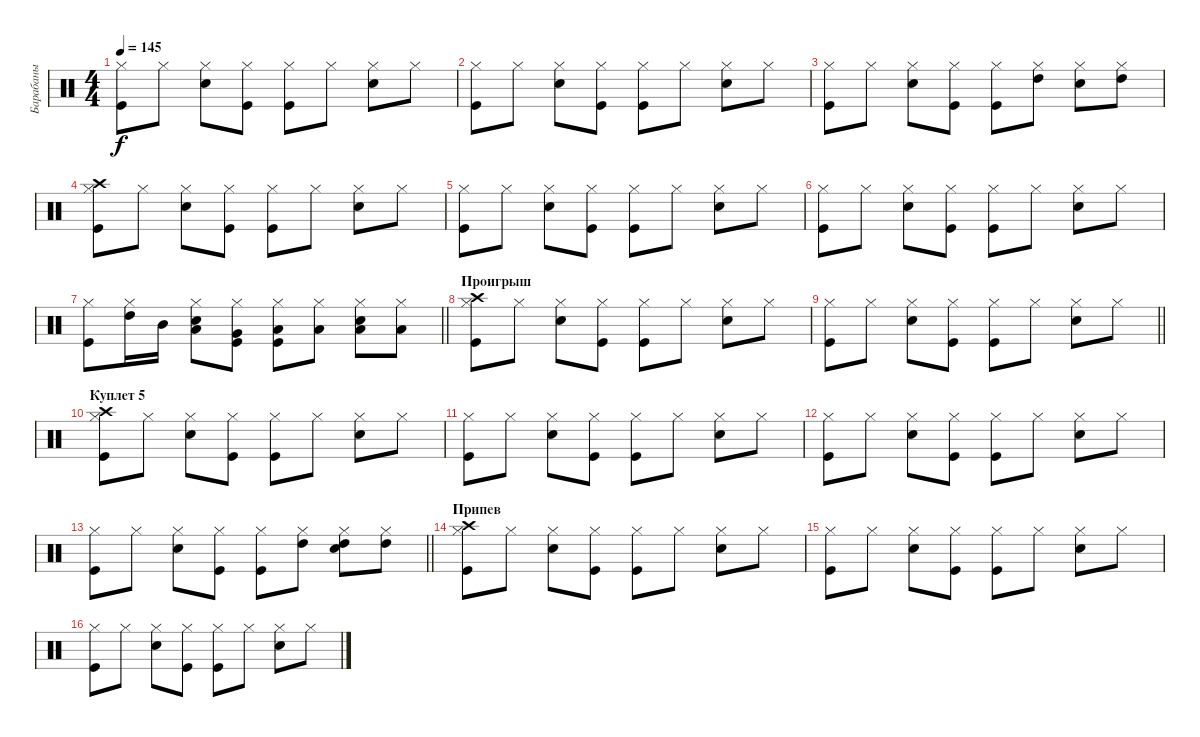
\track ("Барабаны" "Барабаны") {instrument percussion}
\staff {score}
\articulation defaults
\ts (4 4)
\tempo 145
\clef neutral
\ks c
("Kick (hit)" "Hi-Hat (closed)").8{dy f} "Hi-Hat (closed)".8 ("Snare (hit) 2" "Hi-Hat (closed)").8 ("Kick (hit)" "Hi-Hat (closed)").8 ("Kick (hit)" "Hi-Hat (closed)").8 "Hi-Hat (closed)".8 ("Snare (hit) 2" "Hi-Hat (closed)").8 "Hi-Hat (closed)".8 |
("Kick (hit)" "Hi-Hat (closed)").8 "Hi-Hat (closed)".8 ("Snare (hit) 2" "Hi-Hat (closed)").8 ("Kick (hit)" "Hi-Hat (closed)").8 ("Kick (hit)" "Hi-Hat (closed)").8 "Hi-Hat (closed)".8 ("Snare (hit) 2" "Hi-Hat (closed)").8 "Hi-Hat (closed)".8 |
("Kick (hit)" "Hi-Hat (closed)").8 "Hi-Hat (closed)".8 ("Snare (hit) 2" "Hi-Hat (closed)").8 ("Kick (hit)" "Hi-Hat (closed)").8 ("Kick (hit)" "Hi-Hat (closed)").8 ("Hi-Hat (closed)" "High Tom (hit)").8 ("Snare (hit) 2" "Hi-Hat (closed)").8 ("Hi-Hat (closed)" "High Tom (hit)").8 |
("Kick (hit)" "Hi-Hat (closed)" "Crash high (hit)").8 "Hi-Hat (closed)".8 ("Snare (hit) 2" "Hi-Hat (closed)").8 ("Kick (hit)" "Hi-Hat (closed)").8 ("Kick (hit)" "Hi-Hat (closed)").8 "Hi-Hat (closed)".8 ("Snare (hit) 2" "Hi-Hat (closed)").8 "Hi-Hat (closed)".8 |
("Kick (hit)" "Hi-Hat (closed)").8 "Hi-Hat (closed)".8 ("Snare (hit) 2" "Hi-Hat (closed)").8 ("Kick (hit)" "Hi-Hat (closed)").8 ("Kick (hit)" "Hi-Hat (closed)").8 "Hi-Hat (closed)".8 ("Snare (hit) 2" "Hi-Hat (closed)").8 "Hi-Hat (closed)".8 |
("Kick (hit)" "Hi-Hat (closed)").8 "Hi-Hat (closed)".8 ("Snare (hit) 2" "Hi-Hat (closed)").8 ("Kick (hit)" "Hi-Hat (closed)").8 ("Kick (hit)" "Hi-Hat (closed)").8 "Hi-Hat (closed)".8 ("Snare (hit) 2" "Hi-Hat (closed)").8 "Hi-Hat (closed)".8 |
\barLineRight lightlight
("Kick (hit)" "Hi-Hat (closed)").8 ("Hi-Hat (closed)" "High Tom (hit)").16 "Mid Tom (hit)".16 ("Snare (hit) 2" "Hi-Hat (closed)" "Low Tom (hit)").8 ("Kick (hit)" "Hi-Hat (closed)" "Very Low Tom (hit)").8 ("Kick (hit)" "Hi-Hat (closed)" "Low Floor Tom (hit)").8 ("Hi-Hat (closed)" "Low Floor Tom (hit)").8 ("Snare (hit) 2" "Hi-Hat (closed)" "Low Floor Tom (hit)").8 ("Hi-Hat (closed)" "Low Floor Tom (hit)").8 |
\section ("" "Проигрыш")
("Kick (hit)" "Hi-Hat (closed)" "Crash high (hit)").8 "Hi-Hat (closed)".8 ("Snare (hit) 2" "Hi-Hat (closed)").8 ("Kick (hit)" "Hi-Hat (closed)").8 ("Kick (hit)" "Hi-Hat (closed)").8 "Hi-Hat (closed)".8 ("Snare (hit) 2" "Hi-Hat (closed)").8 "Hi-Hat (closed)".8 |
\barLineRight lightlight
("Kick (hit)" "Hi-Hat (closed)").8 "Hi-Hat (closed)".8 ("Snare (hit) 2" "Hi-Hat (closed)").8 ("Kick (hit)" "Hi-Hat (closed)").8 ("Kick (hit)" "Hi-Hat (closed)").8 "Hi-Hat (closed)".8 ("Snare (hit) 2" "Hi-Hat (closed)").8 "Hi-Hat (closed)".8 |
\section ("" "Куплет 5")
("Kick (hit)" "Hi-Hat (closed)" "Crash high (hit)").8 "Hi-Hat (closed)".8 ("Snare (hit) 2" "Hi-Hat (closed)").8 ("Kick (hit)" "Hi-Hat (closed)").8 ("Kick (hit)" "Hi-Hat (closed)").8 "Hi-Hat (closed)".8 ("Snare (hit) 2" "Hi-Hat (closed)").8 "Hi-Hat (closed)".8 |
("Kick (hit)" "Hi-Hat (closed)").8 "Hi-Hat (closed)".8 ("Snare (hit) 2" "Hi-Hat (closed)").8 ("Kick (hit)" "Hi-Hat (closed)").8 ("Kick (hit)" "Hi-Hat (closed)").8 "Hi-Hat (closed)".8 ("Snare (hit) 2" "Hi-Hat (closed)").8 "Hi-Hat (closed)".8 |
("Kick (hit)" "Hi-Hat (closed)").8 "Hi-Hat (closed)".8 ("Snare (hit) 2" "Hi-Hat (closed)").8 ("Kick (hit)" "Hi-Hat (closed)").8 ("Kick (hit)" "Hi-Hat (closed)").8 "Hi-Hat (closed)".8 ("Snare (hit) 2" "Hi-Hat (closed)").8 "Hi-Hat (closed)".8 |
\barLineRight lightlight
("Kick (hit)" "Hi-Hat (closed)").8 "Hi-Hat (closed)".8 ("Snare (hit) 2" "Hi-Hat (closed)").8 ("Kick (hit)" "Hi-Hat (closed)").8 ("Kick (hit)" "Hi-Hat (closed)").8 ("Hi-Hat (closed)" "High Tom (hit)").8 ("Snare (hit) 2" "Hi-Hat (closed)" "High Tom (hit)").8 ("Hi-Hat (closed)" "High Tom (hit)").8 |
\section ("" "Припев")
("Kick (hit)" "Hi-Hat (closed)" "Crash high (hit)").8 "Hi-Hat (closed)".8 ("Snare (hit) 2" "Hi-Hat (closed)").8 ("Kick (hit)" "Hi-Hat (closed)").8 ("Kick (hit)" "Hi-Hat (closed)").8 "Hi-Hat (closed)".8 ("Snare (hit) 2" "Hi-Hat (closed)").8 "Hi-Hat (closed)".8 |
("Kick (hit)" "Hi-Hat (closed)").8 "Hi-Hat (closed)".8 ("Snare (hit) 2" "Hi-Hat (closed)").8 ("Kick (hit)" "Hi-Hat (closed)").8 ("Kick (hit)" "Hi-Hat (closed)").8 "Hi-Hat (closed)".8 ("Snare (hit) 2" "Hi-Hat (closed)").8 "Hi-Hat (closed)".8 |
("Kick (hit)" "Hi-Hat (closed)").8 "Hi-Hat (closed)".8 ("Snare (hit) 2" "Hi-Hat (closed)").8 ("Kick (hit)" "Hi-Hat (closed)").8 ("Kick (hit)" "Hi-Hat (closed)").8 "Hi-Hat (closed)".8 ("Snare (hit) 2" "Hi-Hat (closed)").8 "Hi-Hat (closed)".8
